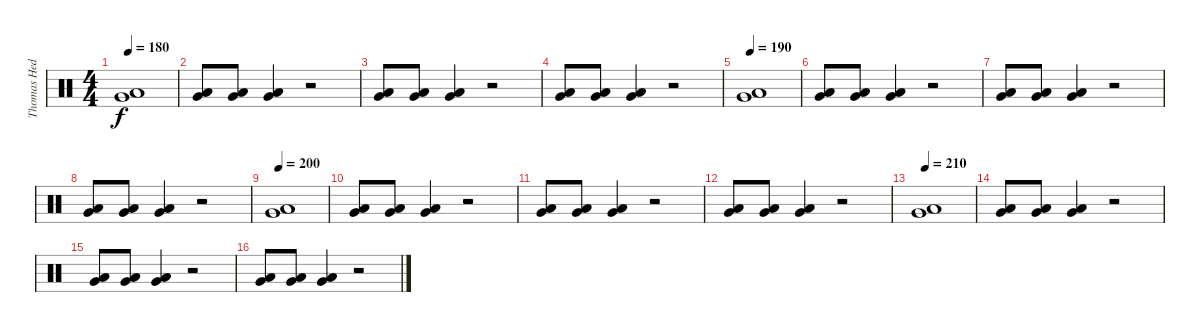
\track ("Thomas Hedlund" "Thomas Hed") {instrument percussion}
\staff {score}
\articulation defaults
\ts (4 4)
\tempo 180
\clef neutral
\ks c
("Very Low Tom (hit)" "Low Floor Tom (hit)").1{dy f} |
("Very Low Tom (hit)" "Low Floor Tom (hit)").8 ("Very Low Tom (hit)" "Low Floor Tom (hit)").8 ("Very Low Tom (hit)" "Low Floor Tom (hit)").4 r.2 |
("Very Low Tom (hit)" "Low Floor Tom (hit)").8 ("Very Low Tom (hit)" "Low Floor Tom (hit)").8 ("Very Low Tom (hit)" "Low Floor Tom (hit)").4 r.2 |
("Very Low Tom (hit)" "Low Floor Tom (hit)").8 ("Very Low Tom (hit)" "Low Floor Tom (hit)").8 ("Very Low Tom (hit)" "Low Floor Tom (hit)").4 r.2 |
\tempo 190
("Very Low Tom (hit)" "Low Floor Tom (hit)").1 |
("Very Low Tom (hit)" "Low Floor Tom (hit)").8 ("Very Low Tom (hit)" "Low Floor Tom (hit)").8 ("Very Low Tom (hit)" "Low Floor Tom (hit)").4 r.2 |
("Very Low Tom (hit)" "Low Floor Tom (hit)").8 ("Very Low Tom (hit)" "Low Floor Tom (hit)").8 ("Very Low Tom (hit)" "Low Floor Tom (hit)").4 r.2 |
("Very Low Tom (hit)" "Low Floor Tom (hit)").8 ("Very Low Tom (hit)" "Low Floor Tom (hit)").8 ("Very Low Tom (hit)" "Low Floor Tom (hit)").4 r.2 |
\tempo 200
("Very Low Tom (hit)" "Low Floor Tom (hit)").1 |
("Very Low Tom (hit)" "Low Floor Tom (hit)").8 ("Very Low Tom (hit)" "Low Floor Tom (hit)").8 ("Very Low Tom (hit)" "Low Floor Tom (hit)").4 r.2 |
("Very Low Tom (hit)" "Low Floor Tom (hit)").8 ("Very Low Tom (hit)" "Low Floor Tom (hit)").8 ("Very Low Tom (hit)" "Low Floor Tom (hit)").4 r.2 |
("Very Low Tom (hit)" "Low Floor Tom (hit)").8 ("Very Low Tom (hit)" "Low Floor Tom (hit)").8 ("Very Low Tom (hit)" "Low Floor Tom (hit)").4 r.2 |
\tempo 210
("Very Low Tom (hit)" "Low Floor Tom (hit)").1 |
("Very Low Tom (hit)" "Low Floor Tom (hit)").8 ("Very Low Tom (hit)" "Low Floor Tom (hit)").8 ("Very Low Tom (hit)" "Low Floor Tom (hit)").4 r.2 |
("Very Low Tom (hit)" "Low Floor Tom (hit)").8 ("Very Low Tom (hit)" "Low Floor Tom (hit)").8 ("Very Low Tom (hit)" "Low Floor Tom (hit)").4 r.2 |
("Very Low Tom (hit)" "Low Floor Tom (hit)").8 ("Very Low Tom (hit)" "Low Floor Tom (hit)").8 ("Very Low Tom (hit)" "Low Floor Tom (hit)").4 r.2
